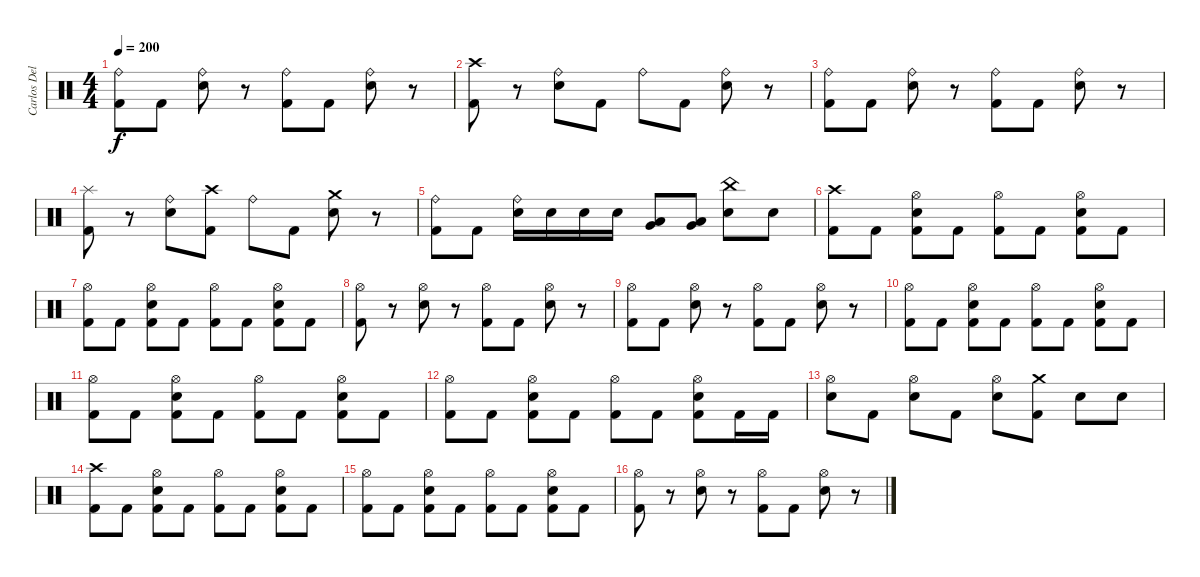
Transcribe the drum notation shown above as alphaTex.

\track ("Carlos Delgado" "Carlos Del") {instrument percussion}
\staff {score}
\articulation defaults
\ts (4 4)
\tempo 200
\clef neutral
\ks c
("Ride (bell)" "Kick (hit) 2").8{dy f} "Kick (hit) 2".8 ("Ride (bell)" "Electric Snare (hit)").8 r.8 ("Ride (bell)" "Kick (hit) 2").8 "Kick (hit) 2".8 ("Ride (bell)" "Electric Snare (hit)").8 r.8 |
("Crash high (hit)" "Kick (hit) 2").8 r.8 ("Ride (bell)" "Electric Snare (hit)").8 "Kick (hit) 2".8 "Ride (bell)".8 "Kick (hit) 2".8 ("Electric Snare (hit)" "Ride (bell)").8 r.8 |
("Ride (bell)" "Kick (hit) 2").8 "Kick (hit) 2".8 ("Ride (bell)" "Electric Snare (hit)").8 r.8 ("Ride (bell)" "Kick (hit) 2").8 "Kick (hit) 2".8 ("Ride (bell)" "Electric Snare (hit)").8 r.8 |
("Splash (hit)" "Kick (hit) 2").8 r.8 ("Ride (bell)" "Electric Snare (hit)").8 ("Crash high (hit)" "Kick (hit) 2").8 "Ride (bell)".8 "Kick (hit) 2".8 ("Electric Snare (hit)" "Crash medium (hit)").8 r.8 |
("Ride (bell)" "Kick (hit) 2").8 "Kick (hit) 2".8 ("Ride (bell)" "Electric Snare (hit)").16 "Electric Snare (hit)".16 "Electric Snare (hit)".16 "Electric Snare (hit)".16 ("Very Low Tom (hit)" "Low Floor Tom (hit)").8 ("Very Low Tom (hit)" "Low Floor Tom (hit)").8 ("China (hit)" "Electric Snare (hit)").8 "Electric Snare (hit)".8 |
("Crash high (hit)" "Kick (hit) 2").8 "Kick (hit) 2".8 ("Kick (hit) 2" "Electric Snare (hit)" "Hi-Hat (open)").8 "Kick (hit) 2".8 ("Kick (hit) 2" "Hi-Hat (open)").8 "Kick (hit) 2".8 ("Kick (hit) 2" "Electric Snare (hit)" "Hi-Hat (open)").8 "Kick (hit) 2".8 |
("Kick (hit) 2" "Hi-Hat (open)").8 "Kick (hit) 2".8 ("Kick (hit) 2" "Electric Snare (hit)" "Hi-Hat (open)").8 "Kick (hit) 2".8 ("Hi-Hat (open)" "Kick (hit) 2").8 "Kick (hit) 2".8 ("Kick (hit) 2" "Hi-Hat (open)" "Electric Snare (hit)").8 "Kick (hit) 2".8 |
("Kick (hit) 2" "Hi-Hat (open)").8 r.8 ("Electric Snare (hit)" "Hi-Hat (open)").8 r.8 ("Kick (hit) 2" "Hi-Hat (open)").8 "Kick (hit) 2".8 ("Electric Snare (hit)" "Hi-Hat (open)").8 r.8 |
("Kick (hit) 2" "Hi-Hat (open)").8 "Kick (hit) 2".8 ("Hi-Hat (open)" "Electric Snare (hit)").8 r.8 ("Hi-Hat (open)" "Kick (hit) 2").8 "Kick (hit) 2".8 ("Hi-Hat (open)" "Electric Snare (hit)").8 r.8 |
("Kick (hit) 2" "Hi-Hat (open)").8 "Kick (hit) 2".8 ("Kick (hit) 2" "Electric Snare (hit)" "Hi-Hat (open)").8 "Kick (hit) 2".8 ("Hi-Hat (open)" "Kick (hit) 2").8 "Kick (hit) 2".8 ("Kick (hit) 2" "Hi-Hat (open)" "Electric Snare (hit)").8 "Kick (hit) 2".8 |
("Kick (hit) 2" "Hi-Hat (open)").8 "Kick (hit) 2".8 ("Kick (hit) 2" "Electric Snare (hit)" "Hi-Hat (open)").8 "Kick (hit) 2".8 ("Kick (hit) 2" "Hi-Hat (open)").8 "Kick (hit) 2".8 ("Kick (hit) 2" "Electric Snare (hit)" "Hi-Hat (open)").8 "Kick (hit) 2".8 |
("Kick (hit) 2" "Hi-Hat (open)").8 "Kick (hit) 2".8 ("Kick (hit) 2" "Electric Snare (hit)" "Hi-Hat (open)").8 "Kick (hit) 2".8 ("Hi-Hat (open)" "Kick (hit) 2").8 "Kick (hit) 2".8 ("Kick (hit) 2" "Hi-Hat (open)" "Electric Snare (hit)").8 "Kick (hit) 2".16 "Kick (hit) 2".16 |
("Hi-Hat (open)" "Electric Snare (hit)").8 "Kick (hit) 2".8 ("Hi-Hat (open)" "Electric Snare (hit)").8 "Kick (hit) 2".8 ("Hi-Hat (open)" "Electric Snare (hit)").8 ("Kick (hit) 2" "Crash medium (hit)").8 "Electric Snare (hit)".8 "Electric Snare (hit)".8 |
("Kick (hit) 2" "Crash high (hit)").8 "Kick (hit) 2".8 ("Kick (hit) 2" "Electric Snare (hit)" "Hi-Hat (open)").8 "Kick (hit) 2".8 ("Kick (hit) 2" "Hi-Hat (open)").8 "Kick (hit) 2".8 ("Kick (hit) 2" "Electric Snare (hit)" "Hi-Hat (open)").8 "Kick (hit) 2".8 |
("Kick (hit) 2" "Hi-Hat (open)").8 "Kick (hit) 2".8 ("Kick (hit) 2" "Electric Snare (hit)" "Hi-Hat (open)").8 "Kick (hit) 2".8 ("Kick (hit) 2" "Hi-Hat (open)").8 "Kick (hit) 2".8 ("Kick (hit) 2" "Hi-Hat (open)" "Electric Snare (hit)").8 "Kick (hit) 2".8 |
("Kick (hit) 2" "Hi-Hat (open)").8 r.8 ("Electric Snare (hit)" "Hi-Hat (open)").8 r.8 ("Kick (hit) 2" "Hi-Hat (open)").8 "Kick (hit) 2".8 ("Electric Snare (hit)" "Hi-Hat (open)").8 r.8
